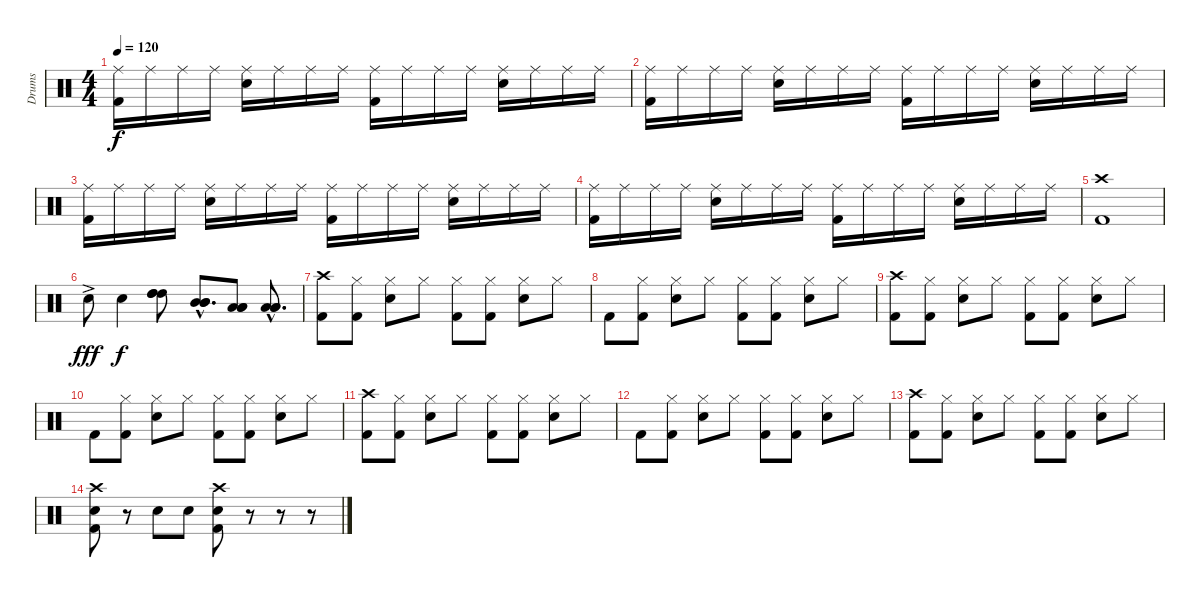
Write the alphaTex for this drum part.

\track ("Drums" "Drums") {instrument percussion}
\staff {score}
\articulation defaults
\ts (4 4)
\tempo 120
\clef neutral
\ks c
("Ride (middle)" "Kick (hit) 2").16{dy f} "Ride (middle)".16 "Ride (middle)".16 "Ride (middle)".16 ("Ride (middle)" "Snare (hit) 2").16 "Ride (middle)".16 "Ride (middle)".16 "Ride (middle)".16 ("Ride (middle)" "Kick (hit) 2").16 "Ride (middle)".16 "Ride (middle)".16 "Ride (middle)".16 ("Ride (middle)" "Snare (hit) 2").16 "Ride (middle)".16 "Ride (middle)".16 "Ride (middle)".16 |
("Ride (middle)" "Kick (hit) 2").16 "Ride (middle)".16 "Ride (middle)".16 "Ride (middle)".16 ("Ride (middle)" "Snare (hit) 2").16 "Ride (middle)".16 "Ride (middle)".16 "Ride (middle)".16 ("Ride (middle)" "Kick (hit) 2").16 "Ride (middle)".16 "Ride (middle)".16 "Ride (middle)".16 ("Ride (middle)" "Snare (hit) 2").16 "Ride (middle)".16 "Ride (middle)".16 "Ride (middle)".16 |
("Ride (middle)" "Kick (hit) 2").16 "Ride (middle)".16 "Ride (middle)".16 "Ride (middle)".16 ("Ride (middle)" "Snare (hit) 2").16 "Ride (middle)".16 "Ride (middle)".16 "Ride (middle)".16 ("Ride (middle)" "Kick (hit) 2").16 "Ride (middle)".16 "Ride (middle)".16 "Ride (middle)".16 ("Ride (middle)" "Snare (hit) 2").16 "Ride (middle)".16 "Ride (middle)".16 "Ride (middle)".16 |
("Ride (middle)" "Kick (hit) 2").16 "Ride (middle)".16 "Ride (middle)".16 "Ride (middle)".16 ("Ride (middle)" "Snare (hit) 2").16 "Ride (middle)".16 "Ride (middle)".16 "Ride (middle)".16 ("Ride (middle)" "Kick (hit) 2").16 "Ride (middle)".16 "Ride (middle)".16 "Ride (middle)".16 ("Ride (middle)" "Snare (hit) 2").16 "Ride (middle)".16 "Ride (middle)".16 "Ride (middle)".16 |
("Crash high (hit)" "Kick (hit) 2").1 |
"Snare (hit) 2"{ac}.8{dy fff} "Snare (hit) 2".4{dy f} ("High Tom (hit)" "High Tom (hit)" "High Tom (hit)").8 ("Mid Tom (hit)"{hac} "Mid Tom (hit)"{hac} "Mid Tom (hit)"{hac}).8{d} ("Low Tom (hit)" "Low Tom (hit)" "Low Tom (hit)").8 ("Low Tom (hit)"{hac} "Low Tom (hit)"{hac} "Low Tom (hit)"{hac}).8{d} |
("Crash high (hit)" "Kick (hit) 2").8 ("Hi-Hat (closed)" "Kick (hit) 2").8 ("Hi-Hat (closed)" "Snare (hit) 2").8 "Hi-Hat (closed)".8 ("Hi-Hat (closed)" "Kick (hit) 2").8 ("Hi-Hat (closed)" "Kick (hit) 2").8 ("Hi-Hat (closed)" "Snare (hit) 2").8 "Hi-Hat (closed)".8 |
"Kick (hit) 2".8 ("Hi-Hat (closed)" "Kick (hit) 2").8 ("Hi-Hat (closed)" "Snare (hit) 2").8 "Hi-Hat (closed)".8 ("Hi-Hat (closed)" "Kick (hit) 2").8 ("Hi-Hat (closed)" "Kick (hit) 2").8 ("Hi-Hat (closed)" "Snare (hit) 2").8 "Hi-Hat (closed)".8 |
("Crash high (hit)" "Kick (hit) 2").8 ("Hi-Hat (closed)" "Kick (hit) 2").8 ("Hi-Hat (closed)" "Snare (hit) 2").8 "Hi-Hat (closed)".8 ("Hi-Hat (closed)" "Kick (hit) 2").8 ("Hi-Hat (closed)" "Kick (hit) 2").8 ("Hi-Hat (closed)" "Snare (hit) 2").8 "Hi-Hat (closed)".8 |
"Kick (hit) 2".8 ("Hi-Hat (closed)" "Kick (hit) 2").8 ("Hi-Hat (closed)" "Snare (hit) 2").8 "Hi-Hat (closed)".8 ("Hi-Hat (closed)" "Kick (hit) 2").8 ("Hi-Hat (closed)" "Kick (hit) 2").8 ("Hi-Hat (closed)" "Snare (hit) 2").8 "Hi-Hat (closed)".8 |
("Crash high (hit)" "Kick (hit) 2").8 ("Hi-Hat (closed)" "Kick (hit) 2").8 ("Hi-Hat (closed)" "Snare (hit) 2").8 "Hi-Hat (closed)".8 ("Hi-Hat (closed)" "Kick (hit) 2").8 ("Hi-Hat (closed)" "Kick (hit) 2").8 ("Hi-Hat (closed)" "Snare (hit) 2").8 "Hi-Hat (closed)".8 |
"Kick (hit) 2".8 ("Hi-Hat (closed)" "Kick (hit) 2").8 ("Hi-Hat (closed)" "Snare (hit) 2").8 "Hi-Hat (closed)".8 ("Hi-Hat (closed)" "Kick (hit) 2").8 ("Hi-Hat (closed)" "Kick (hit) 2").8 ("Hi-Hat (closed)" "Snare (hit) 2").8 "Hi-Hat (closed)".8 |
("Crash high (hit)" "Kick (hit) 2").8 ("Hi-Hat (closed)" "Kick (hit) 2").8 ("Hi-Hat (closed)" "Snare (hit) 2").8 "Hi-Hat (closed)".8 ("Hi-Hat (closed)" "Kick (hit) 2").8 ("Hi-Hat (closed)" "Kick (hit) 2").8 ("Hi-Hat (closed)" "Snare (hit) 2").8 "Hi-Hat (closed)".8 |
("Crash high (hit)" "Snare (hit) 2" "Kick (hit) 2").8 r.8 "Snare (hit) 2".8 "Snare (hit) 2".8 ("Crash high (hit)" "Snare (hit) 2" "Kick (hit) 2").8 r.8 r.8 r.8
